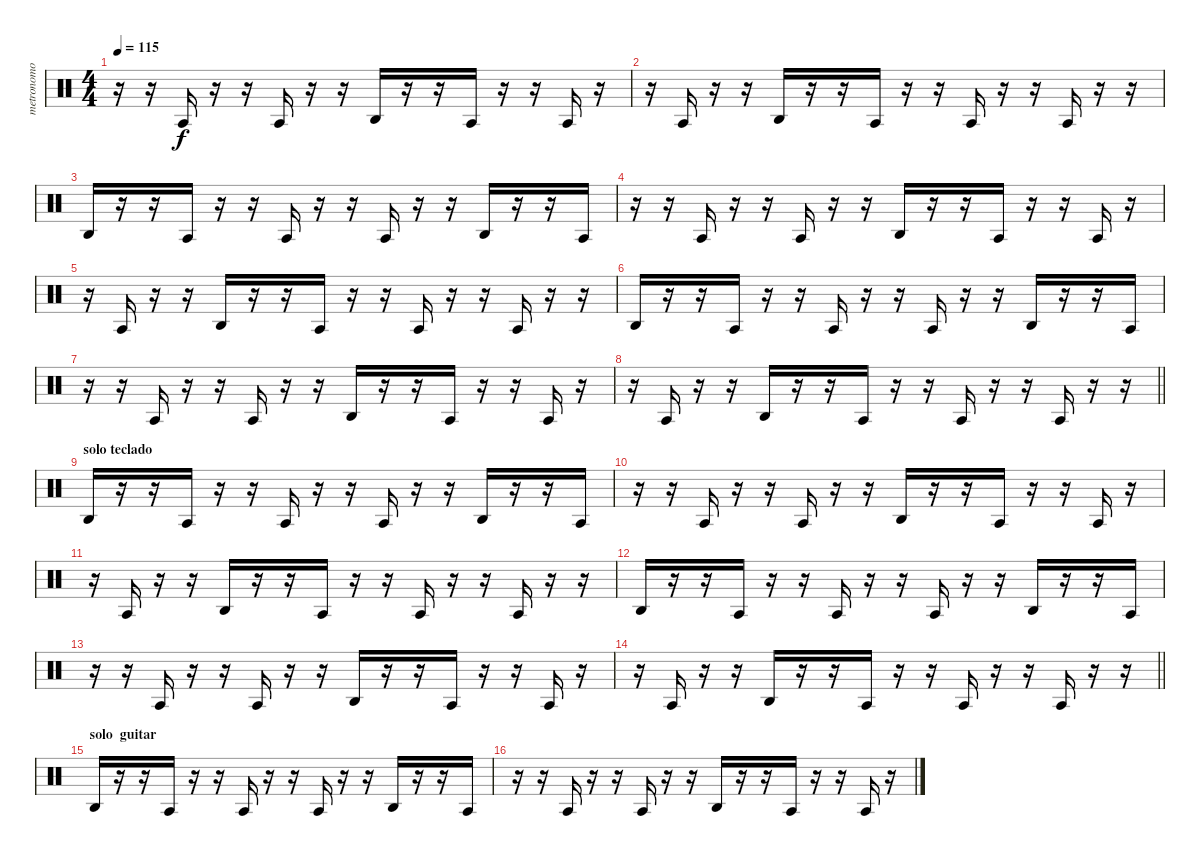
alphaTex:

\track ("metronomo" "metronomo") {instrument percussion}
\staff {score}
\articulation defaults
\ts (4 4)
\tempo 115
\clef neutral
\ks c
r.16{dy f} r.16 "Agogo tow (hit)".16 r.16 r.16 "Agogo tow (hit)".16 r.16 r.16 "Agogo high (hit)".16 r.16 r.16 "Agogo tow (hit)".16 r.16 r.16 "Agogo tow (hit)".16 r.16 |
r.16 "Agogo tow (hit)".16 r.16 r.16 "Agogo high (hit)".16 r.16 r.16 "Agogo tow (hit)".16 r.16 r.16 "Agogo tow (hit)".16 r.16 r.16 "Agogo tow (hit)".16 r.16 r.16 |
"Agogo high (hit)".16 r.16 r.16 "Agogo tow (hit)".16 r.16 r.16 "Agogo tow (hit)".16 r.16 r.16 "Agogo tow (hit)".16 r.16 r.16 "Agogo high (hit)".16 r.16 r.16 "Agogo tow (hit)".16 |
r.16 r.16 "Agogo tow (hit)".16 r.16 r.16 "Agogo tow (hit)".16 r.16 r.16 "Agogo high (hit)".16 r.16 r.16 "Agogo tow (hit)".16 r.16 r.16 "Agogo tow (hit)".16 r.16 |
r.16 "Agogo tow (hit)".16 r.16 r.16 "Agogo high (hit)".16 r.16 r.16 "Agogo tow (hit)".16 r.16 r.16 "Agogo tow (hit)".16 r.16 r.16 "Agogo tow (hit)".16 r.16 r.16 |
"Agogo high (hit)".16 r.16 r.16 "Agogo tow (hit)".16 r.16 r.16 "Agogo tow (hit)".16 r.16 r.16 "Agogo tow (hit)".16 r.16 r.16 "Agogo high (hit)".16 r.16 r.16 "Agogo tow (hit)".16 |
r.16 r.16 "Agogo tow (hit)".16 r.16 r.16 "Agogo tow (hit)".16 r.16 r.16 "Agogo high (hit)".16 r.16 r.16 "Agogo tow (hit)".16 r.16 r.16 "Agogo tow (hit)".16 r.16 |
\barLineRight lightlight
r.16 "Agogo tow (hit)".16 r.16 r.16 "Agogo high (hit)".16 r.16 r.16 "Agogo tow (hit)".16 r.16 r.16 "Agogo tow (hit)".16 r.16 r.16 "Agogo tow (hit)".16 r.16 r.16 |
\section ("" "solo teclado")
"Agogo high (hit)".16 r.16 r.16 "Agogo tow (hit)".16 r.16 r.16 "Agogo tow (hit)".16 r.16 r.16 "Agogo tow (hit)".16 r.16 r.16 "Agogo high (hit)".16 r.16 r.16 "Agogo tow (hit)".16 |
r.16 r.16 "Agogo tow (hit)".16 r.16 r.16 "Agogo tow (hit)".16 r.16 r.16 "Agogo high (hit)".16 r.16 r.16 "Agogo tow (hit)".16 r.16 r.16 "Agogo tow (hit)".16 r.16 |
r.16 "Agogo tow (hit)".16 r.16 r.16 "Agogo high (hit)".16 r.16 r.16 "Agogo tow (hit)".16 r.16 r.16 "Agogo tow (hit)".16 r.16 r.16 "Agogo tow (hit)".16 r.16 r.16 |
"Agogo high (hit)".16 r.16 r.16 "Agogo tow (hit)".16 r.16 r.16 "Agogo tow (hit)".16 r.16 r.16 "Agogo tow (hit)".16 r.16 r.16 "Agogo high (hit)".16 r.16 r.16 "Agogo tow (hit)".16 |
r.16 r.16 "Agogo tow (hit)".16 r.16 r.16 "Agogo tow (hit)".16 r.16 r.16 "Agogo high (hit)".16 r.16 r.16 "Agogo tow (hit)".16 r.16 r.16 "Agogo tow (hit)".16 r.16 |
\barLineRight lightlight
r.16 "Agogo tow (hit)".16 r.16 r.16 "Agogo high (hit)".16 r.16 r.16 "Agogo tow (hit)".16 r.16 r.16 "Agogo tow (hit)".16 r.16 r.16 "Agogo tow (hit)".16 r.16 r.16 |
\section ("" "solo  guitar")
"Agogo high (hit)".16 r.16 r.16 "Agogo tow (hit)".16 r.16 r.16 "Agogo tow (hit)".16 r.16 r.16 "Agogo tow (hit)".16 r.16 r.16 "Agogo high (hit)".16 r.16 r.16 "Agogo tow (hit)".16 |
r.16 r.16 "Agogo tow (hit)".16 r.16 r.16 "Agogo tow (hit)".16 r.16 r.16 "Agogo high (hit)".16 r.16 r.16 "Agogo tow (hit)".16 r.16 r.16 "Agogo tow (hit)".16 r.16
